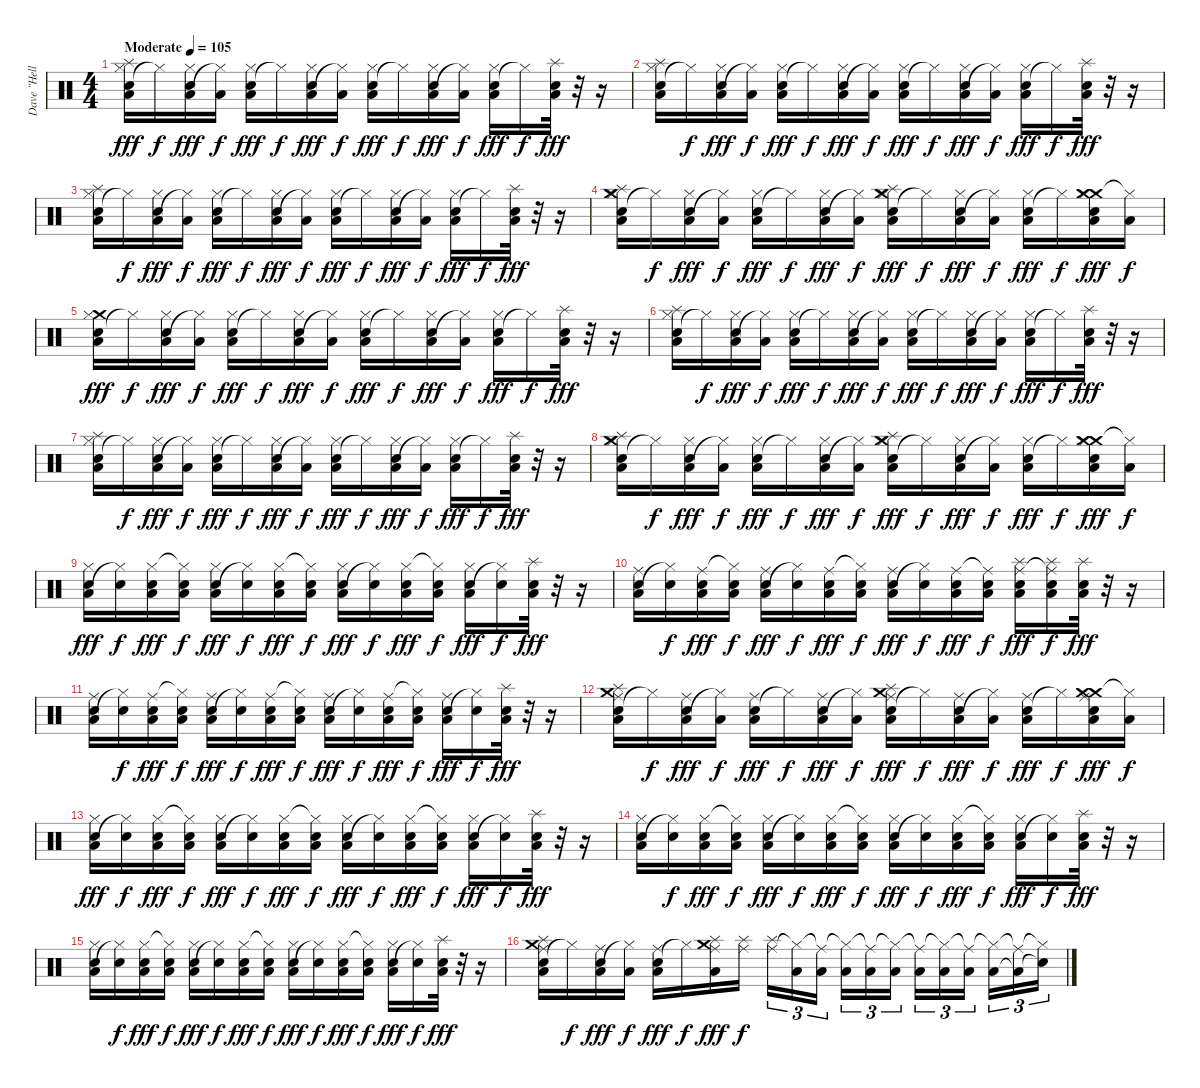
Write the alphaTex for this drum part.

\track ("Dave \"Hellstorm\" Chiarella" "Dave \"Hell") {solo instrument percussion}
\staff {score}
\articulation defaults
\ts (4 4)
\tempo (105 "Moderate")
\clef neutral
\ks c
("Electric Snare (hit)" "Splash (hit)" "Low Floor Tom (hit)" "Hi-Hat (closed)").16{dy fff} "Hi-Hat (closed)"{t}.16{dy f} ("Electric Snare (hit)" "Low Floor Tom (hit)" "Hi-Hat (closed)").16{dy fff} ("Low Floor Tom (hit)" "Hi-Hat (closed)"{t}).16{dy f} ("Electric Snare (hit)" "Low Floor Tom (hit)" "Hi-Hat (closed)").16{dy fff} "Hi-Hat (closed)"{t}.16{dy f} ("Electric Snare (hit)" "Low Floor Tom (hit)" "Hi-Hat (closed)").16{dy fff} ("Low Floor Tom (hit)" "Hi-Hat (closed)"{t}).16{dy f} ("Electric Snare (hit)" "Low Floor Tom (hit)" "Hi-Hat (closed)").16{dy fff} "Hi-Hat (closed)"{t}.16{dy f} ("Electric Snare (hit)" "Low Floor Tom (hit)" "Hi-Hat (closed)").16{dy fff} ("Low Floor Tom (hit)" "Hi-Hat (closed)"{t}).16{dy f} ("Electric Snare (hit)" "Low Floor Tom (hit)" "Hi-Hat (closed)").16{dy fff} "Hi-Hat (closed)"{t}.16{dy f} ("Electric Snare (hit)" "Splash (hit)" "Low Floor Tom (hit)").32{dy fff} r.32 r.16 |
("Electric Snare (hit)" "Splash (hit)" "Low Floor Tom (hit)" "Hi-Hat (closed)").16 "Hi-Hat (closed)"{t}.16{dy f} ("Electric Snare (hit)" "Low Floor Tom (hit)" "Hi-Hat (closed)").16{dy fff} ("Low Floor Tom (hit)" "Hi-Hat (closed)"{t}).16{dy f} ("Electric Snare (hit)" "Low Floor Tom (hit)" "Hi-Hat (closed)").16{dy fff} "Hi-Hat (closed)"{t}.16{dy f} ("Electric Snare (hit)" "Low Floor Tom (hit)" "Hi-Hat (closed)").16{dy fff} ("Low Floor Tom (hit)" "Hi-Hat (closed)"{t}).16{dy f} ("Electric Snare (hit)" "Low Floor Tom (hit)" "Hi-Hat (closed)").16{dy fff} "Hi-Hat (closed)"{t}.16{dy f} ("Electric Snare (hit)" "Low Floor Tom (hit)" "Hi-Hat (closed)").16{dy fff} ("Low Floor Tom (hit)" "Hi-Hat (closed)"{t}).16{dy f} ("Electric Snare (hit)" "Low Floor Tom (hit)" "Hi-Hat (closed)").16{dy fff} "Hi-Hat (closed)"{t}.16{dy f} ("Electric Snare (hit)" "Splash (hit)" "Low Floor Tom (hit)").32{dy fff} r.32 r.16 |
("Electric Snare (hit)" "Splash (hit)" "Low Floor Tom (hit)" "Hi-Hat (closed)").16 "Hi-Hat (closed)"{t}.16{dy f} ("Electric Snare (hit)" "Low Floor Tom (hit)" "Hi-Hat (closed)").16{dy fff} ("Low Floor Tom (hit)" "Hi-Hat (closed)"{t}).16{dy f} ("Electric Snare (hit)" "Low Floor Tom (hit)" "Hi-Hat (closed)").16{dy fff} "Hi-Hat (closed)"{t}.16{dy f} ("Electric Snare (hit)" "Low Floor Tom (hit)" "Hi-Hat (closed)").16{dy fff} ("Low Floor Tom (hit)" "Hi-Hat (closed)"{t}).16{dy f} ("Electric Snare (hit)" "Low Floor Tom (hit)" "Hi-Hat (closed)").16{dy fff} "Hi-Hat (closed)"{t}.16{dy f} ("Electric Snare (hit)" "Low Floor Tom (hit)" "Hi-Hat (closed)").16{dy fff} ("Low Floor Tom (hit)" "Hi-Hat (closed)"{t}).16{dy f} ("Electric Snare (hit)" "Low Floor Tom (hit)" "Hi-Hat (closed)").16{dy fff} "Hi-Hat (closed)"{t}.16{dy f} ("Electric Snare (hit)" "Splash (hit)" "Low Floor Tom (hit)").32{dy fff} r.32 r.16 |
("Electric Snare (hit)" "Crash medium (hit)" "Splash (hit)" "Low Floor Tom (hit)" "Hi-Hat (closed)").16 "Hi-Hat (closed)"{t}.16{dy f} ("Electric Snare (hit)" "Low Floor Tom (hit)" "Hi-Hat (closed)").16{dy fff} ("Low Floor Tom (hit)" "Hi-Hat (closed)"{t}).16{dy f} ("Electric Snare (hit)" "Low Floor Tom (hit)" "Hi-Hat (closed)").16{dy fff} "Hi-Hat (closed)"{t}.16{dy f} ("Electric Snare (hit)" "Low Floor Tom (hit)" "Hi-Hat (closed)").16{dy fff} ("Low Floor Tom (hit)" "Hi-Hat (closed)"{t}).16{dy f} ("Electric Snare (hit)" "Crash medium (hit)" "Splash (hit)" "Low Floor Tom (hit)" "Hi-Hat (closed)").16{dy fff} "Hi-Hat (closed)"{t}.16{dy f} ("Electric Snare (hit)" "Low Floor Tom (hit)" "Hi-Hat (closed)").16{dy fff} ("Low Floor Tom (hit)" "Hi-Hat (closed)"{t}).16{dy f} ("Electric Snare (hit)" "Low Floor Tom (hit)" "Hi-Hat (closed)").16{dy fff} "Hi-Hat (closed)"{t}.16{dy f} ("Electric Snare (hit)" "Crash medium (hit)" "Crash medium (hit)" "Low Floor Tom (hit)" "Hi-Hat (closed)").16{dy fff} ("Low Floor Tom (hit)" "Hi-Hat (closed)"{t}).16{dy f} |
("Electric Snare (hit)" "Crash medium (hit)" "Low Floor Tom (hit)" "Hi-Hat (closed)").16{dy fff} "Hi-Hat (closed)"{t}.16{dy f} ("Electric Snare (hit)" "Low Floor Tom (hit)" "Hi-Hat (closed)").16{dy fff} ("Low Floor Tom (hit)" "Hi-Hat (closed)"{t}).16{dy f} ("Electric Snare (hit)" "Low Floor Tom (hit)" "Hi-Hat (closed)").16{dy fff} "Hi-Hat (closed)"{t}.16{dy f} ("Electric Snare (hit)" "Low Floor Tom (hit)" "Hi-Hat (closed)").16{dy fff} ("Low Floor Tom (hit)" "Hi-Hat (closed)"{t}).16{dy f} ("Electric Snare (hit)" "Low Floor Tom (hit)" "Hi-Hat (closed)").16{dy fff} "Hi-Hat (closed)"{t}.16{dy f} ("Electric Snare (hit)" "Low Floor Tom (hit)" "Hi-Hat (closed)").16{dy fff} ("Low Floor Tom (hit)" "Hi-Hat (closed)"{t}).16{dy f} ("Electric Snare (hit)" "Low Floor Tom (hit)" "Hi-Hat (closed)").16{dy fff} "Hi-Hat (closed)"{t}.16{dy f} ("Electric Snare (hit)" "Splash (hit)" "Low Floor Tom (hit)").32{dy fff} r.32 r.16 |
("Electric Snare (hit)" "Splash (hit)" "Low Floor Tom (hit)" "Hi-Hat (closed)").16 "Hi-Hat (closed)"{t}.16{dy f} ("Electric Snare (hit)" "Low Floor Tom (hit)" "Hi-Hat (closed)").16{dy fff} ("Low Floor Tom (hit)" "Hi-Hat (closed)"{t}).16{dy f} ("Electric Snare (hit)" "Low Floor Tom (hit)" "Hi-Hat (closed)").16{dy fff} "Hi-Hat (closed)"{t}.16{dy f} ("Electric Snare (hit)" "Low Floor Tom (hit)" "Hi-Hat (closed)").16{dy fff} ("Low Floor Tom (hit)" "Hi-Hat (closed)"{t}).16{dy f} ("Electric Snare (hit)" "Low Floor Tom (hit)" "Hi-Hat (closed)").16{dy fff} "Hi-Hat (closed)"{t}.16{dy f} ("Electric Snare (hit)" "Low Floor Tom (hit)" "Hi-Hat (closed)").16{dy fff} ("Low Floor Tom (hit)" "Hi-Hat (closed)"{t}).16{dy f} ("Electric Snare (hit)" "Low Floor Tom (hit)" "Hi-Hat (closed)").16{dy fff} "Hi-Hat (closed)"{t}.16{dy f} ("Electric Snare (hit)" "Splash (hit)" "Low Floor Tom (hit)").32{dy fff} r.32 r.16 |
("Electric Snare (hit)" "Splash (hit)" "Low Floor Tom (hit)" "Hi-Hat (closed)").16 "Hi-Hat (closed)"{t}.16{dy f} ("Electric Snare (hit)" "Low Floor Tom (hit)" "Hi-Hat (closed)").16{dy fff} ("Low Floor Tom (hit)" "Hi-Hat (closed)"{t}).16{dy f} ("Electric Snare (hit)" "Low Floor Tom (hit)" "Hi-Hat (closed)").16{dy fff} "Hi-Hat (closed)"{t}.16{dy f} ("Electric Snare (hit)" "Low Floor Tom (hit)" "Hi-Hat (closed)").16{dy fff} ("Low Floor Tom (hit)" "Hi-Hat (closed)"{t}).16{dy f} ("Electric Snare (hit)" "Low Floor Tom (hit)" "Hi-Hat (closed)").16{dy fff} "Hi-Hat (closed)"{t}.16{dy f} ("Electric Snare (hit)" "Low Floor Tom (hit)" "Hi-Hat (closed)").16{dy fff} ("Low Floor Tom (hit)" "Hi-Hat (closed)"{t}).16{dy f} ("Electric Snare (hit)" "Low Floor Tom (hit)" "Hi-Hat (closed)").16{dy fff} "Hi-Hat (closed)"{t}.16{dy f} ("Electric Snare (hit)" "Splash (hit)" "Low Floor Tom (hit)").32{dy fff} r.32 r.16 |
("Electric Snare (hit)" "Crash medium (hit)" "Splash (hit)" "Low Floor Tom (hit)" "Hi-Hat (closed)").16 "Hi-Hat (closed)"{t}.16{dy f} ("Electric Snare (hit)" "Low Floor Tom (hit)" "Hi-Hat (closed)").16{dy fff} ("Low Floor Tom (hit)" "Hi-Hat (closed)"{t}).16{dy f} ("Electric Snare (hit)" "Low Floor Tom (hit)" "Hi-Hat (closed)").16{dy fff} "Hi-Hat (closed)"{t}.16{dy f} ("Electric Snare (hit)" "Low Floor Tom (hit)" "Hi-Hat (closed)").16{dy fff} ("Low Floor Tom (hit)" "Hi-Hat (closed)"{t}).16{dy f} ("Electric Snare (hit)" "Crash medium (hit)" "Splash (hit)" "Low Floor Tom (hit)" "Hi-Hat (closed)").16{dy fff} "Hi-Hat (closed)"{t}.16{dy f} ("Electric Snare (hit)" "Low Floor Tom (hit)" "Hi-Hat (closed)").16{dy fff} ("Low Floor Tom (hit)" "Hi-Hat (closed)"{t}).16{dy f} ("Electric Snare (hit)" "Low Floor Tom (hit)" "Hi-Hat (closed)").16{dy fff} "Hi-Hat (closed)"{t}.16{dy f} ("Electric Snare (hit)" "Crash medium (hit)" "Crash medium (hit)" "Low Floor Tom (hit)" "Hi-Hat (closed)").16{dy fff} ("Low Floor Tom (hit)" "Hi-Hat (closed)"{t}).16{dy f} |
("Electric Snare (hit)" "Low Floor Tom (hit)" "Hi-Hat (closed)").16{dy fff} ("Electric Snare (hit)" "Hi-Hat (closed)"{t}).16{dy f} ("Electric Snare (hit)" "Low Floor Tom (hit)" "Hi-Hat (closed)").16{dy fff} ("Electric Snare (hit)" "Low Floor Tom (hit)" "Hi-Hat (closed)"{t}).16{dy f} ("Electric Snare (hit)" "Low Floor Tom (hit)" "Hi-Hat (closed)").16{dy fff} ("Electric Snare (hit)" "Hi-Hat (closed)"{t}).16{dy f} ("Electric Snare (hit)" "Low Floor Tom (hit)" "Hi-Hat (closed)").16{dy fff} ("Electric Snare (hit)" "Low Floor Tom (hit)" "Hi-Hat (closed)"{t}).16{dy f} ("Electric Snare (hit)" "Low Floor Tom (hit)" "Hi-Hat (closed)").16{dy fff} ("Electric Snare (hit)" "Hi-Hat (closed)"{t}).16{dy f} ("Electric Snare (hit)" "Low Floor Tom (hit)" "Hi-Hat (closed)").16{dy fff} ("Electric Snare (hit)" "Low Floor Tom (hit)" "Hi-Hat (closed)"{t}).16{dy f} ("Electric Snare (hit)" "Low Floor Tom (hit)" "Hi-Hat (closed)").16{dy fff} ("Electric Snare (hit)" "Hi-Hat (closed)"{t}).16{dy f} ("Electric Snare (hit)" "Splash (hit)" "Low Floor Tom (hit)").32{dy fff} r.32 r.16 |
("Electric Snare (hit)" "Low Floor Tom (hit)" "Ride (middle)").16 ("Electric Snare (hit)" "Hi-Hat (closed)"{t}).16{dy f} ("Electric Snare (hit)" "Low Floor Tom (hit)" "Ride (middle)").16{dy fff} ("Electric Snare (hit)" "Low Floor Tom (hit)" "Hi-Hat (closed)"{t}).16{dy f} ("Electric Snare (hit)" "Low Floor Tom (hit)" "Ride (middle)").16{dy fff} ("Electric Snare (hit)" "Hi-Hat (closed)"{t}).16{dy f} ("Electric Snare (hit)" "Low Floor Tom (hit)" "Ride (middle)").16{dy fff} ("Electric Snare (hit)" "Low Floor Tom (hit)" "Hi-Hat (closed)"{t}).16{dy f} ("Electric Snare (hit)" "Low Floor Tom (hit)" "Ride (middle)").16{dy fff} ("Electric Snare (hit)" "Hi-Hat (closed)"{t}).16{dy f} ("Electric Snare (hit)" "Low Floor Tom (hit)" "Ride (middle)").16{dy fff} ("Electric Snare (hit)" "Low Floor Tom (hit)" "Ride (middle)"{t}).16{dy f} ("Electric Snare (hit)" "Splash (hit)" "Low Floor Tom (hit)" "Ride (middle)").16{dy fff} ("Electric Snare (hit)" "Splash (hit)" "Low Floor Tom (hit)" "Ride (middle)"{t}).16{dy f} ("Electric Snare (hit)" "Splash (hit)" "Low Floor Tom (hit)").32{dy fff} r.32 r.16 |
("Electric Snare (hit)" "Low Floor Tom (hit)" "Ride (middle)").16 ("Electric Snare (hit)" "Hi-Hat (closed)"{t}).16{dy f} ("Electric Snare (hit)" "Low Floor Tom (hit)" "Ride (middle)").16{dy fff} ("Electric Snare (hit)" "Low Floor Tom (hit)" "Hi-Hat (closed)"{t}).16{dy f} ("Electric Snare (hit)" "Low Floor Tom (hit)" "Ride (middle)").16{dy fff} ("Electric Snare (hit)" "Hi-Hat (closed)"{t}).16{dy f} ("Electric Snare (hit)" "Low Floor Tom (hit)" "Ride (middle)").16{dy fff} ("Electric Snare (hit)" "Low Floor Tom (hit)" "Hi-Hat (closed)"{t}).16{dy f} ("Electric Snare (hit)" "Low Floor Tom (hit)" "Ride (middle)").16{dy fff} ("Electric Snare (hit)" "Hi-Hat (closed)"{t}).16{dy f} ("Electric Snare (hit)" "Low Floor Tom (hit)" "Ride (middle)").16{dy fff} ("Electric Snare (hit)" "Low Floor Tom (hit)" "Hi-Hat (closed)"{t}).16{dy f} ("Electric Snare (hit)" "Low Floor Tom (hit)" "Ride (middle)").16{dy fff} ("Electric Snare (hit)" "Hi-Hat (closed)"{t}).16{dy f} ("Electric Snare (hit)" "Splash (hit)" "Low Floor Tom (hit)").32{dy fff} r.32 r.16 |
("Electric Snare (hit)" "Crash medium (hit)" "Splash (hit)" "Low Floor Tom (hit)" "Ride (middle)").16 "Hi-Hat (closed)"{t}.16{dy f} ("Electric Snare (hit)" "Low Floor Tom (hit)" "Ride (middle)").16{dy fff} ("Low Floor Tom (hit)" "Hi-Hat (closed)"{t}).16{dy f} ("Electric Snare (hit)" "Low Floor Tom (hit)" "Ride (middle)").16{dy fff} "Hi-Hat (closed)"{t}.16{dy f} ("Electric Snare (hit)" "Low Floor Tom (hit)" "Ride (middle)").16{dy fff} ("Low Floor Tom (hit)" "Hi-Hat (closed)"{t}).16{dy f} ("Electric Snare (hit)" "Crash medium (hit)" "Splash (hit)" "Low Floor Tom (hit)" "Ride (middle)").16{dy fff} "Hi-Hat (closed)"{t}.16{dy f} ("Electric Snare (hit)" "Low Floor Tom (hit)" "Ride (middle)").16{dy fff} ("Low Floor Tom (hit)" "Hi-Hat (closed)"{t}).16{dy f} ("Electric Snare (hit)" "Low Floor Tom (hit)" "Ride (middle)").16{dy fff} "Hi-Hat (closed)"{t}.16{dy f} ("Electric Snare (hit)" "Crash medium (hit)" "Crash medium (hit)" "Low Floor Tom (hit)" "Ride (middle)").16{dy fff} ("Low Floor Tom (hit)" "Hi-Hat (closed)"{t}).16{dy f} |
("Electric Snare (hit)" "Low Floor Tom (hit)" "Hi-Hat (closed)").16{dy fff} ("Electric Snare (hit)" "Hi-Hat (closed)"{t}).16{dy f} ("Electric Snare (hit)" "Low Floor Tom (hit)" "Hi-Hat (closed)").16{dy fff} ("Electric Snare (hit)" "Low Floor Tom (hit)" "Hi-Hat (closed)"{t}).16{dy f} ("Electric Snare (hit)" "Low Floor Tom (hit)" "Hi-Hat (closed)").16{dy fff} ("Electric Snare (hit)" "Hi-Hat (closed)"{t}).16{dy f} ("Electric Snare (hit)" "Low Floor Tom (hit)" "Hi-Hat (closed)").16{dy fff} ("Electric Snare (hit)" "Low Floor Tom (hit)" "Hi-Hat (closed)"{t}).16{dy f} ("Electric Snare (hit)" "Low Floor Tom (hit)" "Hi-Hat (closed)").16{dy fff} ("Electric Snare (hit)" "Hi-Hat (closed)"{t}).16{dy f} ("Electric Snare (hit)" "Low Floor Tom (hit)" "Hi-Hat (closed)").16{dy fff} ("Electric Snare (hit)" "Low Floor Tom (hit)" "Hi-Hat (closed)"{t}).16{dy f} ("Electric Snare (hit)" "Low Floor Tom (hit)" "Hi-Hat (closed)").16{dy fff} ("Electric Snare (hit)" "Hi-Hat (closed)"{t}).16{dy f} ("Electric Snare (hit)" "Splash (hit)" "Low Floor Tom (hit)").32{dy fff} r.32 r.16 |
("Electric Snare (hit)" "Low Floor Tom (hit)" "Hi-Hat (closed)").16 ("Electric Snare (hit)" "Hi-Hat (closed)"{t}).16{dy f} ("Electric Snare (hit)" "Low Floor Tom (hit)" "Hi-Hat (closed)").16{dy fff} ("Electric Snare (hit)" "Low Floor Tom (hit)" "Hi-Hat (closed)"{t}).16{dy f} ("Electric Snare (hit)" "Low Floor Tom (hit)" "Hi-Hat (closed)").16{dy fff} ("Electric Snare (hit)" "Hi-Hat (closed)"{t}).16{dy f} ("Electric Snare (hit)" "Low Floor Tom (hit)" "Hi-Hat (closed)").16{dy fff} ("Electric Snare (hit)" "Low Floor Tom (hit)" "Hi-Hat (closed)"{t}).16{dy f} ("Electric Snare (hit)" "Low Floor Tom (hit)" "Hi-Hat (closed)").16{dy fff} ("Electric Snare (hit)" "Hi-Hat (closed)"{t}).16{dy f} ("Electric Snare (hit)" "Low Floor Tom (hit)" "Hi-Hat (closed)").16{dy fff} ("Electric Snare (hit)" "Low Floor Tom (hit)" "Hi-Hat (closed)"{t}).16{dy f} ("Electric Snare (hit)" "Low Floor Tom (hit)" "Hi-Hat (closed)").16{dy fff} ("Electric Snare (hit)" "Hi-Hat (closed)"{t}).16{dy f} ("Electric Snare (hit)" "Splash (hit)" "Low Floor Tom (hit)").32{dy fff} r.32 r.16 |
("Electric Snare (hit)" "Low Floor Tom (hit)" "Hi-Hat (closed)").16 ("Electric Snare (hit)" "Hi-Hat (closed)"{t}).16{dy f} ("Electric Snare (hit)" "Low Floor Tom (hit)" "Hi-Hat (closed)").16{dy fff} ("Electric Snare (hit)" "Low Floor Tom (hit)" "Hi-Hat (closed)"{t}).16{dy f} ("Electric Snare (hit)" "Low Floor Tom (hit)" "Hi-Hat (closed)").16{dy fff} ("Electric Snare (hit)" "Hi-Hat (closed)"{t}).16{dy f} ("Electric Snare (hit)" "Low Floor Tom (hit)" "Hi-Hat (closed)").16{dy fff} ("Electric Snare (hit)" "Low Floor Tom (hit)" "Hi-Hat (closed)"{t}).16{dy f} ("Electric Snare (hit)" "Low Floor Tom (hit)" "Hi-Hat (closed)").16{dy fff} ("Electric Snare (hit)" "Hi-Hat (closed)"{t}).16{dy f} ("Electric Snare (hit)" "Low Floor Tom (hit)" "Hi-Hat (closed)").16{dy fff} ("Electric Snare (hit)" "Low Floor Tom (hit)" "Hi-Hat (closed)"{t}).16{dy f} ("Electric Snare (hit)" "Low Floor Tom (hit)" "Hi-Hat (closed)").16{dy fff} ("Electric Snare (hit)" "Hi-Hat (closed)"{t}).16{dy f} ("Electric Snare (hit)" "Splash (hit)" "Low Floor Tom (hit)").32{dy fff} r.32 r.16 |
("Electric Snare (hit)" "Crash medium (hit)" "Splash (hit)" "Low Floor Tom (hit)" "Ride (middle)").16 "Hi-Hat (closed)"{t}.16{dy f} ("Electric Snare (hit)" "Low Floor Tom (hit)" "Ride (middle)").16{dy fff} ("Low Floor Tom (hit)" "Hi-Hat (closed)"{t}).16{dy f} ("Electric Snare (hit)" "Low Floor Tom (hit)" "Ride (middle)").16{dy fff} "Hi-Hat (closed)"{t}.16{dy f} ("Splash (hit)" "Crash medium (hit)" "Low Floor Tom (hit)" "Ride (middle)").16{dy fff} ("Splash (hit)" "Ride (middle)").16{dy f} ("Splash (hit)" "Ride (middle)").16{tu (3 2)} ("Low Tom (hit)" "Hi-Hat (closed)"{t}).16{tu (3 2)} ("Low Tom (hit)" "Ride (middle)"{t}).16{tu (3 2) beam splitsecondary} ("Low Tom (hit)" "Hi-Hat (closed)"{t}).16{tu (3 2)} ("Low Tom (hit)" "Ride (middle)"{t}).16{tu (3 2)} ("Low Tom (hit)" "Hi-Hat (closed)"{t}).16{tu (3 2)} ("Low Tom (hit)" "Ride (middle)"{t}).16{tu (3 2)} ("Low Tom (hit)" "Hi-Hat (closed)"{t}).16{tu (3 2)} ("Low Tom (hit)" "Ride (middle)"{t}).16{tu (3 2) beam splitsecondary} ("Low Tom (hit)" "Hi-Hat (closed)"{t}).16{tu (3 2)} ("Low Tom (hit)"{t} "Ride (middle)"{t}).16{tu (3 2)} ("Electric Snare (hit)"{t} "Hi-Hat (closed)"{t}).16{tu (3 2)}
